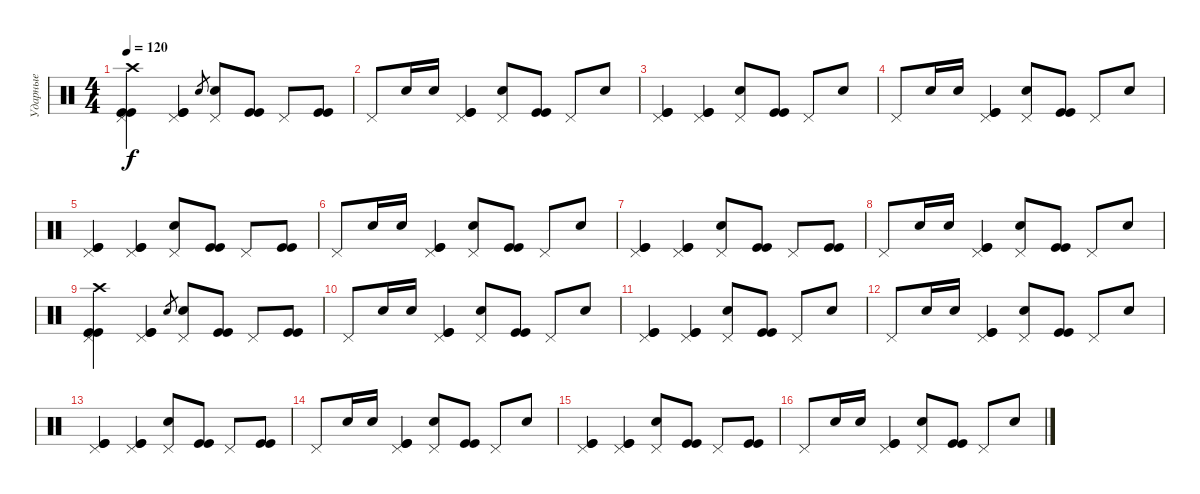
\track ("Ударные" "Ударные") {instrument percussion}
\staff {score}
\articulation defaults
\ts (4 4)
\tempo 120
\clef neutral
\ks c
("Crash high (hit)" "Pedal Hi-Hat (hit)" "Kick (hit)" "Kick (hit)").4{dy f} ("Pedal Hi-Hat (hit)" "Kick (hit)" "Kick (hit)").4 "Snare (hit) 2".8{gr} ("Snare (hit) 2" "Pedal Hi-Hat (hit)").8 ("Kick (hit)" "Kick (hit)").8 "Pedal Hi-Hat (hit)".8 ("Kick (hit)" "Kick (hit)").8 |
"Pedal Hi-Hat (hit)".8 "Snare (hit) 2".16 "Snare (hit) 2".16 ("Pedal Hi-Hat (hit)" "Kick (hit)" "Kick (hit)").4 ("Snare (hit) 2" "Pedal Hi-Hat (hit)").8 ("Kick (hit)" "Kick (hit)").8 "Pedal Hi-Hat (hit)".8 "Snare (hit) 2".8 |
("Pedal Hi-Hat (hit)" "Kick (hit)" "Kick (hit)").4 ("Pedal Hi-Hat (hit)" "Kick (hit)" "Kick (hit)").4 ("Snare (hit) 2" "Pedal Hi-Hat (hit)").8 ("Kick (hit)" "Kick (hit)").8 "Pedal Hi-Hat (hit)".8 "Snare (hit) 2".8 |
"Pedal Hi-Hat (hit)".8 "Snare (hit) 2".16 "Snare (hit) 2".16 ("Pedal Hi-Hat (hit)" "Kick (hit)" "Kick (hit)").4 ("Snare (hit) 2" "Pedal Hi-Hat (hit)").8 ("Kick (hit)" "Kick (hit)").8 "Pedal Hi-Hat (hit)".8 "Snare (hit) 2".8 |
("Pedal Hi-Hat (hit)" "Kick (hit)" "Kick (hit)").4 ("Pedal Hi-Hat (hit)" "Kick (hit)" "Kick (hit)").4 ("Snare (hit) 2" "Pedal Hi-Hat (hit)").8 ("Kick (hit)" "Kick (hit)").8 "Pedal Hi-Hat (hit)".8 ("Kick (hit)" "Kick (hit)").8 |
"Pedal Hi-Hat (hit)".8 "Snare (hit) 2".16 "Snare (hit) 2".16 ("Pedal Hi-Hat (hit)" "Kick (hit)" "Kick (hit)").4 ("Snare (hit) 2" "Pedal Hi-Hat (hit)").8 ("Kick (hit)" "Kick (hit)").8 "Pedal Hi-Hat (hit)".8 "Snare (hit) 2".8 |
("Pedal Hi-Hat (hit)" "Kick (hit)" "Kick (hit)").4 ("Pedal Hi-Hat (hit)" "Kick (hit)" "Kick (hit)").4 ("Snare (hit) 2" "Pedal Hi-Hat (hit)").8 ("Kick (hit)" "Kick (hit)").8 "Pedal Hi-Hat (hit)".8 ("Kick (hit)" "Kick (hit)").8 |
"Pedal Hi-Hat (hit)".8 "Snare (hit) 2".16 "Snare (hit) 2".16 ("Pedal Hi-Hat (hit)" "Kick (hit)" "Kick (hit)").4 ("Snare (hit) 2" "Pedal Hi-Hat (hit)").8 ("Kick (hit)" "Kick (hit)").8 "Pedal Hi-Hat (hit)".8 "Snare (hit) 2".8 |
("Crash high (hit)" "Pedal Hi-Hat (hit)" "Kick (hit)" "Kick (hit)").4 ("Pedal Hi-Hat (hit)" "Kick (hit)" "Kick (hit)").4 "Snare (hit) 2".8{gr} ("Snare (hit) 2" "Pedal Hi-Hat (hit)").8 ("Kick (hit)" "Kick (hit)").8 "Pedal Hi-Hat (hit)".8 ("Kick (hit)" "Kick (hit)").8 |
"Pedal Hi-Hat (hit)".8 "Snare (hit) 2".16 "Snare (hit) 2".16 ("Pedal Hi-Hat (hit)" "Kick (hit)" "Kick (hit)").4 ("Snare (hit) 2" "Pedal Hi-Hat (hit)").8 ("Kick (hit)" "Kick (hit)").8 "Pedal Hi-Hat (hit)".8 "Snare (hit) 2".8 |
("Pedal Hi-Hat (hit)" "Kick (hit)" "Kick (hit)").4 ("Pedal Hi-Hat (hit)" "Kick (hit)" "Kick (hit)").4 ("Snare (hit) 2" "Pedal Hi-Hat (hit)").8 ("Kick (hit)" "Kick (hit)").8 "Pedal Hi-Hat (hit)".8 "Snare (hit) 2".8 |
"Pedal Hi-Hat (hit)".8 "Snare (hit) 2".16 "Snare (hit) 2".16 ("Pedal Hi-Hat (hit)" "Kick (hit)" "Kick (hit)").4 ("Snare (hit) 2" "Pedal Hi-Hat (hit)").8 ("Kick (hit)" "Kick (hit)").8 "Pedal Hi-Hat (hit)".8 "Snare (hit) 2".8 |
("Pedal Hi-Hat (hit)" "Kick (hit)" "Kick (hit)").4 ("Pedal Hi-Hat (hit)" "Kick (hit)" "Kick (hit)").4 ("Snare (hit) 2" "Pedal Hi-Hat (hit)").8 ("Kick (hit)" "Kick (hit)").8 "Pedal Hi-Hat (hit)".8 ("Kick (hit)" "Kick (hit)").8 |
"Pedal Hi-Hat (hit)".8 "Snare (hit) 2".16 "Snare (hit) 2".16 ("Pedal Hi-Hat (hit)" "Kick (hit)" "Kick (hit)").4 ("Snare (hit) 2" "Pedal Hi-Hat (hit)").8 ("Kick (hit)" "Kick (hit)").8 "Pedal Hi-Hat (hit)".8 "Snare (hit) 2".8 |
("Pedal Hi-Hat (hit)" "Kick (hit)" "Kick (hit)").4 ("Pedal Hi-Hat (hit)" "Kick (hit)" "Kick (hit)").4 ("Snare (hit) 2" "Pedal Hi-Hat (hit)").8 ("Kick (hit)" "Kick (hit)").8 "Pedal Hi-Hat (hit)".8 ("Kick (hit)" "Kick (hit)").8 |
"Pedal Hi-Hat (hit)".8 "Snare (hit) 2".16 "Snare (hit) 2".16 ("Pedal Hi-Hat (hit)" "Kick (hit)" "Kick (hit)").4 ("Snare (hit) 2" "Pedal Hi-Hat (hit)").8 ("Kick (hit)" "Kick (hit)").8 "Pedal Hi-Hat (hit)".8 "Snare (hit) 2".8
